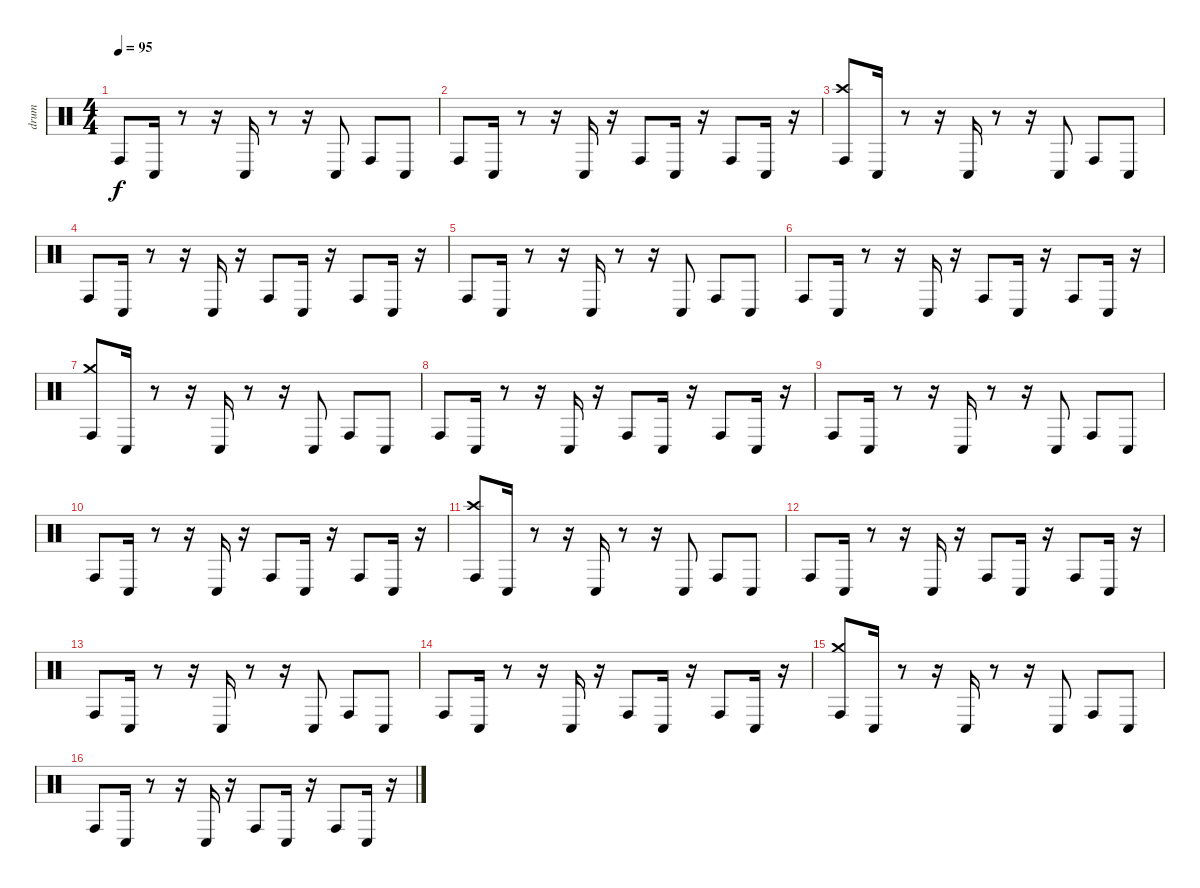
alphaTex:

\track ("drum" "drum") {instrument percussion}
\staff {score}
\articulation defaults
\ts (4 4)
\tempo 95
\clef neutral
\ks c "Conga high (hit)".8{dy f} "Conga low (hit)".16
r.8 r.16 "Conga low (hit)".16 r.8 r.16 "Conga low (hit)".8 "Conga high (hit)".8 "Conga low (hit)".8 |
"Conga high (hit)".8 "Conga low (hit)".16 r.8 r.16 "Conga low (hit)".16 r.16 "Conga high (hit)".8 "Conga low (hit)".16 r.16 "Conga high (hit)".8 "Conga low (hit)".16 r.16 |
("Conga high (hit)" "Crash high (hit)").8 "Conga low (hit)".16 r.8 r.16 "Conga low (hit)".16 r.8 r.16 "Conga low (hit)".8 "Conga high (hit)".8 "Conga low (hit)".8 |
"Conga high (hit)".8 "Conga low (hit)".16 r.8 r.16 "Conga low (hit)".16 r.16 "Conga high (hit)".8 "Conga low (hit)".16 r.16 "Conga high (hit)".8 "Conga low (hit)".16 r.16 |
"Conga high (hit)".8 "Conga low (hit)".16 r.8 r.16 "Conga low (hit)".16 r.8 r.16 "Conga low (hit)".8 "Conga high (hit)".8 "Conga low (hit)".8 |
"Conga high (hit)".8 "Conga low (hit)".16 r.8 r.16 "Conga low (hit)".16 r.16 "Conga high (hit)".8 "Conga low (hit)".16 r.16 "Conga high (hit)".8 "Conga low (hit)".16 r.16 |
("Conga high (hit)" "Crash medium (hit)").8 "Conga low (hit)".16 r.8 r.16 "Conga low (hit)".16 r.8 r.16 "Conga low (hit)".8 "Conga high (hit)".8 "Conga low (hit)".8 |
"Conga high (hit)".8 "Conga low (hit)".16 r.8 r.16 "Conga low (hit)".16 r.16 "Conga high (hit)".8 "Conga low (hit)".16 r.16 "Conga high (hit)".8 "Conga low (hit)".16 r.16 |
"Conga high (hit)".8 "Conga low (hit)".16 r.8 r.16 "Conga low (hit)".16 r.8 r.16 "Conga low (hit)".8 "Conga high (hit)".8 "Conga low (hit)".8 |
"Conga high (hit)".8 "Conga low (hit)".16 r.8 r.16 "Conga low (hit)".16 r.16 "Conga high (hit)".8 "Conga low (hit)".16 r.16 "Conga high (hit)".8 "Conga low (hit)".16 r.16 |
("Conga high (hit)" "Crash high (hit)").8 "Conga low (hit)".16 r.8 r.16 "Conga low (hit)".16 r.8 r.16 "Conga low (hit)".8 "Conga high (hit)".8 "Conga low (hit)".8 |
"Conga high (hit)".8 "Conga low (hit)".16 r.8 r.16 "Conga low (hit)".16 r.16 "Conga high (hit)".8 "Conga low (hit)".16 r.16 "Conga high (hit)".8 "Conga low (hit)".16 r.16 |
"Conga high (hit)".8 "Conga low (hit)".16 r.8 r.16 "Conga low (hit)".16 r.8 r.16 "Conga low (hit)".8 "Conga high (hit)".8 "Conga low (hit)".8 |
"Conga high (hit)".8 "Conga low (hit)".16 r.8 r.16 "Conga low (hit)".16 r.16 "Conga high (hit)".8 "Conga low (hit)".16 r.16 "Conga high (hit)".8 "Conga low (hit)".16 r.16 |
("Crash medium (hit)" "Conga high (hit)").8 "Conga low (hit)".16 r.8 r.16 "Conga low (hit)".16 r.8 r.16 "Conga low (hit)".8 "Conga high (hit)".8 "Conga low (hit)".8 |
"Conga high (hit)".8 "Conga low (hit)".16 r.8 r.16 "Conga low (hit)".16 r.16 "Conga high (hit)".8 "Conga low (hit)".16 r.16 "Conga high (hit)".8 "Conga low (hit)".16 r.16
